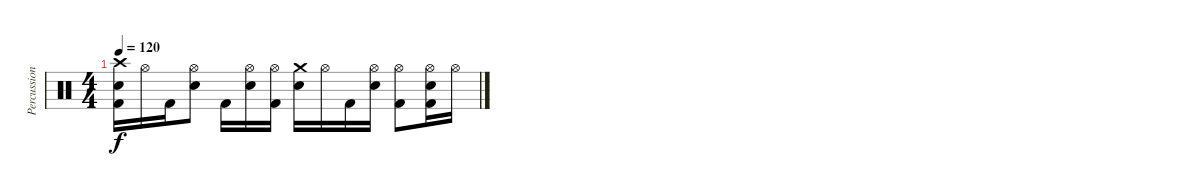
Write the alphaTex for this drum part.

\track ("Percussion" "Percussion") {instrument percussion}
\staff {score}
\articulation defaults
\ts (4 4)
\tempo 120
\clef neutral
\ks c
("Crash high (hit)" "Electric Snare (hit)" "Kick (hit) 2").16{dy f} "Hi-Hat (open)".16 "Kick (hit) 2".16 ("Hi-Hat (open)" "Electric Snare (hit)").8 "Kick (hit) 2".16 ("Hi-Hat (open)" "Electric Snare (hit)").16 ("Hi-Hat (open)" "Kick (hit) 2").16 ("Crash medium (hit)" "Electric Snare (hit)").16 "Hi-Hat (open)".16 "Kick (hit) 2".16 ("Hi-Hat (open)" "Electric Snare (hit)").16 ("Hi-Hat (open)" "Kick (hit) 2").8 ("Hi-Hat (open)" "Electric Snare (hit)" "Kick (hit) 2").16 "Hi-Hat (open)".16
